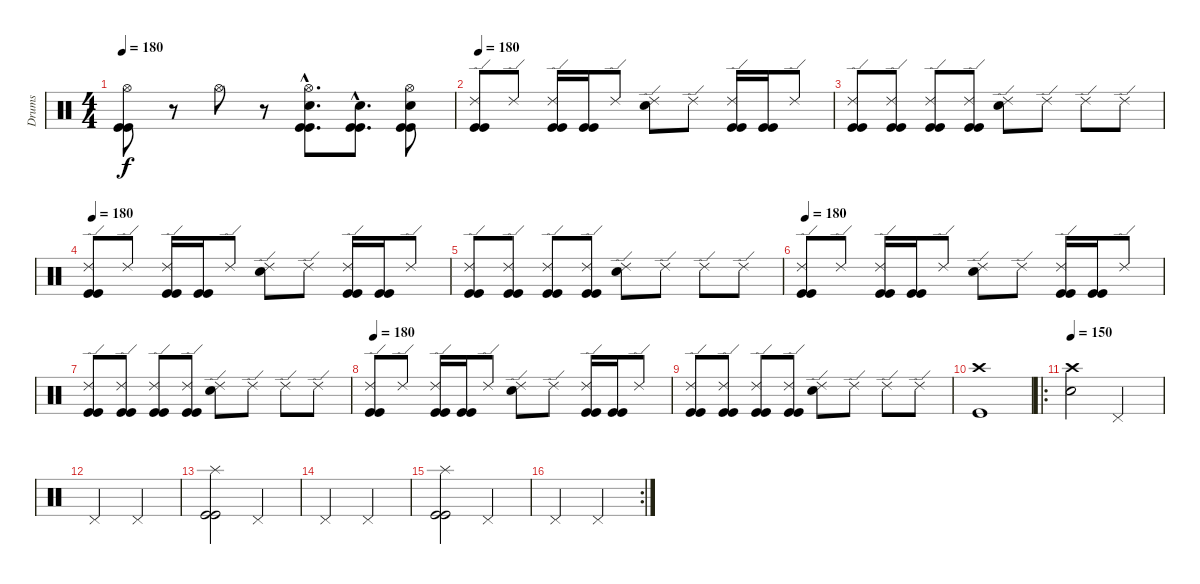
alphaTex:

\track ("Drums" "Drums") {instrument percussion}
\staff {score}
\articulation defaults
\ts (4 4)
\tempo 180
\clef neutral
\ks c
("Hi-Hat (open)" "Kick (hit)" "Kick (hit)").8{dy f} r.8 "Hi-Hat (open)".8 r.8 ("Hi-Hat (open)"{hac} "Snare (hit) 2"{hac} "Kick (hit)"{hac} "Kick (hit)"{hac}).8{d} ("Snare (hit) 2"{hac} "Kick (hit)"{hac} "Kick (hit)"{hac}).8{d} ("Hi-Hat (open)" "Snare (hit) 2" "Kick (hit)" "Kick (hit)").8 |
\tempo 180
("Ride (edge) 2" "Kick (hit)" "Kick (hit)").8 "Ride (edge) 2".8 ("Ride (edge) 2" "Kick (hit)" "Kick (hit)").16 ("Kick (hit)" "Kick (hit)").16 "Ride (edge) 2".8 ("Ride (edge) 2" "Snare (hit) 2").8 "Ride (edge) 2".8 ("Ride (edge) 2" "Kick (hit)" "Kick (hit)").16 ("Kick (hit)" "Kick (hit)").16 "Ride (edge) 2".8 |
("Ride (edge) 2" "Kick (hit)" "Kick (hit)").8 ("Ride (edge) 2" "Kick (hit)" "Kick (hit)").8 ("Ride (edge) 2" "Kick (hit)" "Kick (hit)").8 ("Ride (edge) 2" "Kick (hit)" "Kick (hit)").8 ("Ride (edge) 2" "Snare (hit) 2").8 "Ride (edge) 2".8 "Ride (edge) 2".8 "Ride (edge) 2".8 |
\tempo 180
("Ride (edge) 2" "Kick (hit)" "Kick (hit)").8 "Ride (edge) 2".8 ("Ride (edge) 2" "Kick (hit)" "Kick (hit)").16 ("Kick (hit)" "Kick (hit)").16 "Ride (edge) 2".8 ("Ride (edge) 2" "Snare (hit) 2").8 "Ride (edge) 2".8 ("Ride (edge) 2" "Kick (hit)" "Kick (hit)").16 ("Kick (hit)" "Kick (hit)").16 "Ride (edge) 2".8 |
("Ride (edge) 2" "Kick (hit)" "Kick (hit)").8 ("Ride (edge) 2" "Kick (hit)" "Kick (hit)").8 ("Ride (edge) 2" "Kick (hit)" "Kick (hit)").8 ("Ride (edge) 2" "Kick (hit)" "Kick (hit)").8 ("Ride (edge) 2" "Snare (hit) 2").8 "Ride (edge) 2".8 "Ride (edge) 2".8 "Ride (edge) 2".8 |
\tempo 180
("Ride (edge) 2" "Kick (hit)" "Kick (hit)").8 "Ride (edge) 2".8 ("Ride (edge) 2" "Kick (hit)" "Kick (hit)").16 ("Kick (hit)" "Kick (hit)").16 "Ride (edge) 2".8 ("Ride (edge) 2" "Snare (hit) 2").8 "Ride (edge) 2".8 ("Ride (edge) 2" "Kick (hit)" "Kick (hit)").16 ("Kick (hit)" "Kick (hit)").16 "Ride (edge) 2".8 |
("Ride (edge) 2" "Kick (hit)" "Kick (hit)").8 ("Ride (edge) 2" "Kick (hit)" "Kick (hit)").8 ("Ride (edge) 2" "Kick (hit)" "Kick (hit)").8 ("Ride (edge) 2" "Kick (hit)" "Kick (hit)").8 ("Ride (edge) 2" "Snare (hit) 2").8 "Ride (edge) 2".8 "Ride (edge) 2".8 "Ride (edge) 2".8 |
\tempo 180
("Ride (edge) 2" "Kick (hit)" "Kick (hit)").8 "Ride (edge) 2".8 ("Ride (edge) 2" "Kick (hit)" "Kick (hit)").16 ("Kick (hit)" "Kick (hit)").16 "Ride (edge) 2".8 ("Ride (edge) 2" "Snare (hit) 2").8 "Ride (edge) 2".8 ("Ride (edge) 2" "Kick (hit)" "Kick (hit)").16 ("Kick (hit)" "Kick (hit)").16 "Ride (edge) 2".8 |
("Ride (edge) 2" "Kick (hit)" "Kick (hit)").8 ("Ride (edge) 2" "Kick (hit)" "Kick (hit)").8 ("Ride (edge) 2" "Kick (hit)" "Kick (hit)").8 ("Ride (edge) 2" "Kick (hit)" "Kick (hit)").8 ("Ride (edge) 2" "Snare (hit) 2").8 "Ride (edge) 2".8 "Ride (edge) 2".8 "Ride (edge) 2".8 |
("Crash high (hit)" "Kick (hit)").1 |
\ro
\tempo 150
("Crash high (hit)" "Snare (hit) 2").2 "Pedal Hi-Hat (hit)".2 |
"Pedal Hi-Hat (hit)".2 "Pedal Hi-Hat (hit)".2 |
("Splash (hit)" "Kick (hit)" "Kick (hit)").2 "Pedal Hi-Hat (hit)".2 |
"Pedal Hi-Hat (hit)".2 "Pedal Hi-Hat (hit)".2 |
("Splash (hit)" "Kick (hit)" "Kick (hit)").2 "Pedal Hi-Hat (hit)".2 |
\rc 2 "Pedal Hi-Hat (hit)".2 "Pedal Hi-Hat (hit)".2
